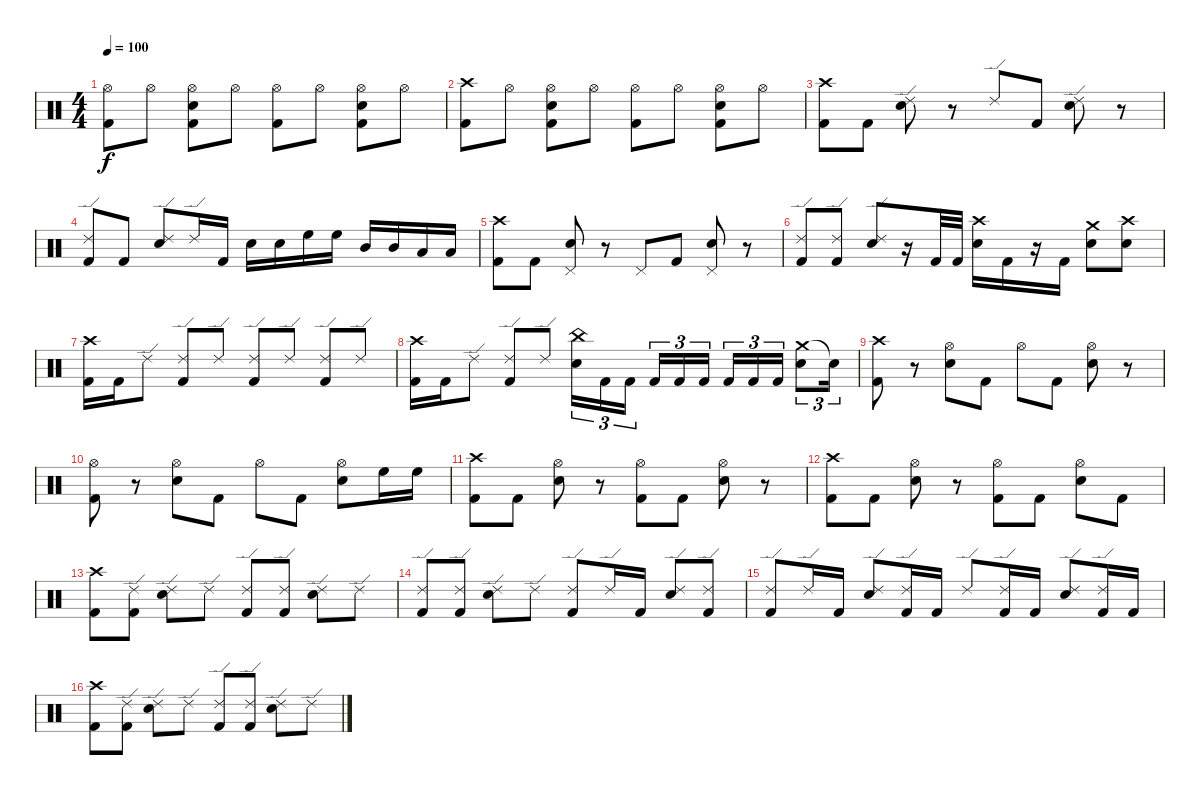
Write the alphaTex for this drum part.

\track "" {instrument percussion}
\staff {score}
\articulation defaults
\ts (4 4)
\tempo 100
\clef neutral
\ks c
("Hi-Hat (open)" "Kick (hit) 2").8{dy f} "Hi-Hat (open)".8 ("Hi-Hat (open)" "Electric Snare (hit)" "Kick (hit) 2").8 "Hi-Hat (open)".8 ("Hi-Hat (open)" "Kick (hit) 2").8 "Hi-Hat (open)".8 ("Hi-Hat (open)" "Electric Snare (hit)" "Kick (hit) 2").8 "Hi-Hat (open)".8 |
("Crash high (hit)" "Kick (hit) 2").8 "Hi-Hat (open)".8 ("Hi-Hat (open)" "Electric Snare (hit)" "Kick (hit) 2").8 "Hi-Hat (open)".8 ("Hi-Hat (open)" "Kick (hit) 2").8 "Hi-Hat (open)".8 ("Hi-Hat (open)" "Electric Snare (hit)" "Kick (hit) 2").8 "Hi-Hat (open)".8 |
("Crash high (hit)" "Kick (hit) 2").8 "Kick (hit) 2".8 ("Ride (edge) 2" "Electric Snare (hit)").8 r.8 "Ride (edge) 2".8 "Kick (hit) 2".8 ("Ride (edge) 2" "Electric Snare (hit)").8 r.8 |
("Ride (edge) 2" "Kick (hit) 2").8 "Kick (hit) 2".8 ("Ride (edge) 2" "Electric Snare (hit)").8 "Ride (edge) 2".16 "Kick (hit) 2".16 "Electric Snare (hit)".16 "Electric Snare (hit)".16 "High Floor Tom (hit)".16{balance 16} "High Floor Tom (hit)".16{balance 16} "Mid Tom (hit)".16{balance 11} "Mid Tom (hit)".16{balance 11} "Low Tom (hit)".16{balance 8} "Low Tom (hit)".16{balance 8} |
("Crash high (hit)" "Kick (hit) 2").8{balance 8} "Kick (hit) 2".8 ("Pedal Hi-Hat (hit)" "Electric Snare (hit)").8 r.8 "Pedal Hi-Hat (hit)".8 "Kick (hit) 2".8 ("Pedal Hi-Hat (hit)" "Electric Snare (hit)").8 r.8 |
("Ride (edge) 2" "Kick (hit) 2").8{balance 8} ("Ride (edge) 2" "Kick (hit) 2").8 ("Ride (edge) 2" "Electric Snare (hit)").8 r.16 "Kick (hit) 2".32 "Kick (hit) 2".32 ("Crash high (hit)" "Electric Snare (hit)").16 "Kick (hit) 2".16 r.16 "Kick (hit) 2".16 ("Crash medium (hit)" "Electric Snare (hit)").8 ("Crash high (hit)" "Electric Snare (hit)").8 |
("Crash high (hit)" "Kick (hit) 2").16 "Kick (hit) 2".16 "Ride (edge) 2".8 ("Ride (edge) 2" "Kick (hit) 2").8 "Ride (edge) 2".8 ("Ride (edge) 2" "Kick (hit) 2").8 "Ride (edge) 2".8 ("Ride (edge) 2" "Kick (hit) 2").8 "Ride (edge) 2".8 |
("Crash high (hit)" "Kick (hit) 2").16 "Kick (hit) 2".16 "Ride (edge) 2".8 ("Ride (edge) 2" "Kick (hit) 2").8 "Ride (edge) 2".8 ("China (hit)" "Electric Snare (hit)").16{tu (3 2)} "Kick (hit) 2".16{tu (3 2)} "Kick (hit) 2".16{tu (3 2)} "Kick (hit) 2".16{tu (3 2)} "Kick (hit) 2".16{tu (3 2)} "Kick (hit) 2".16{tu (3 2)} "Kick (hit) 2".16{tu (3 2)} "Kick (hit) 2".16{tu (3 2)} "Kick (hit) 2".16{tu (3 2)} ("Crash medium (hit)" "Electric Snare (hit)").8{tu (3 2)} "Snare (hit)"{t}.16{tu (3 2)} |
("Crash high (hit)" "Kick (hit) 2").8 r.8 ("Hi-Hat (open)" "Electric Snare (hit)").8 "Kick (hit) 2".8 "Hi-Hat (open)".8 "Kick (hit) 2".8 ("Hi-Hat (open)" "Electric Snare (hit)").8 r.8 |
("Hi-Hat (open)" "Kick (hit) 2").8 r.8 ("Hi-Hat (open)" "Electric Snare (hit)").8 "Kick (hit) 2".8 "Hi-Hat (open)".8 "Kick (hit) 2".8 ("Hi-Hat (open)" "Electric Snare (hit)").8 "High Floor Tom (hit)".16 "High Floor Tom (hit)".16 |
("Crash high (hit)" "Kick (hit) 2").8 "Kick (hit) 2".8 ("Hi-Hat (open)" "Electric Snare (hit)").8 r.8 ("Hi-Hat (open)" "Kick (hit) 2").8 "Kick (hit) 2".8 ("Hi-Hat (open)" "Electric Snare (hit)").8 r.8 |
("Crash high (hit)" "Kick (hit) 2").8 "Kick (hit) 2".8 ("Hi-Hat (open)" "Electric Snare (hit)").8 r.8 ("Hi-Hat (open)" "Kick (hit) 2").8 "Kick (hit) 2".8 ("Hi-Hat (open)" "Electric Snare (hit)").8 "Kick (hit) 2".8 |
("Crash high (hit)" "Kick (hit) 2").8 ("Ride (edge) 2" "Kick (hit) 2").8 ("Ride (edge) 2" "Electric Snare (hit)").8 "Ride (edge) 2".8 ("Ride (edge) 2" "Kick (hit) 2").8 ("Ride (edge) 2" "Kick (hit) 2").8 ("Ride (edge) 2" "Electric Snare (hit)").8 "Ride (edge) 2".8 |
("Ride (edge) 2" "Kick (hit) 2").8 ("Ride (edge) 2" "Kick (hit) 2").8 ("Ride (edge) 2" "Electric Snare (hit)").8 "Ride (edge) 2".8 ("Ride (edge) 2" "Kick (hit) 2").8 "Ride (edge) 2".16 "Kick (hit) 2".16 ("Ride (edge) 2" "Electric Snare (hit)").8 ("Ride (edge) 2" "Kick (hit) 2").8 |
("Ride (edge) 2" "Kick (hit) 2").8 "Ride (edge) 2".16 "Kick (hit) 2".16 ("Ride (edge) 2" "Electric Snare (hit)").8 ("Ride (edge) 2" "Kick (hit) 2").16 "Kick (hit) 2".16 "Ride (edge) 2".8 ("Ride (edge) 2" "Kick (hit) 2").16 "Kick (hit) 2".16 ("Ride (edge) 2" "Electric Snare (hit)").8 ("Ride (edge) 2" "Kick (hit) 2").16 "Kick (hit) 2".16 |
("Crash high (hit)" "Kick (hit) 2").8 ("Ride (edge) 2" "Kick (hit) 2").8 ("Ride (edge) 2" "Electric Snare (hit)").8 "Ride (edge) 2".8 ("Ride (edge) 2" "Kick (hit) 2").8 ("Ride (edge) 2" "Kick (hit) 2").8 ("Ride (edge) 2" "Electric Snare (hit)").8 "Ride (edge) 2".8
